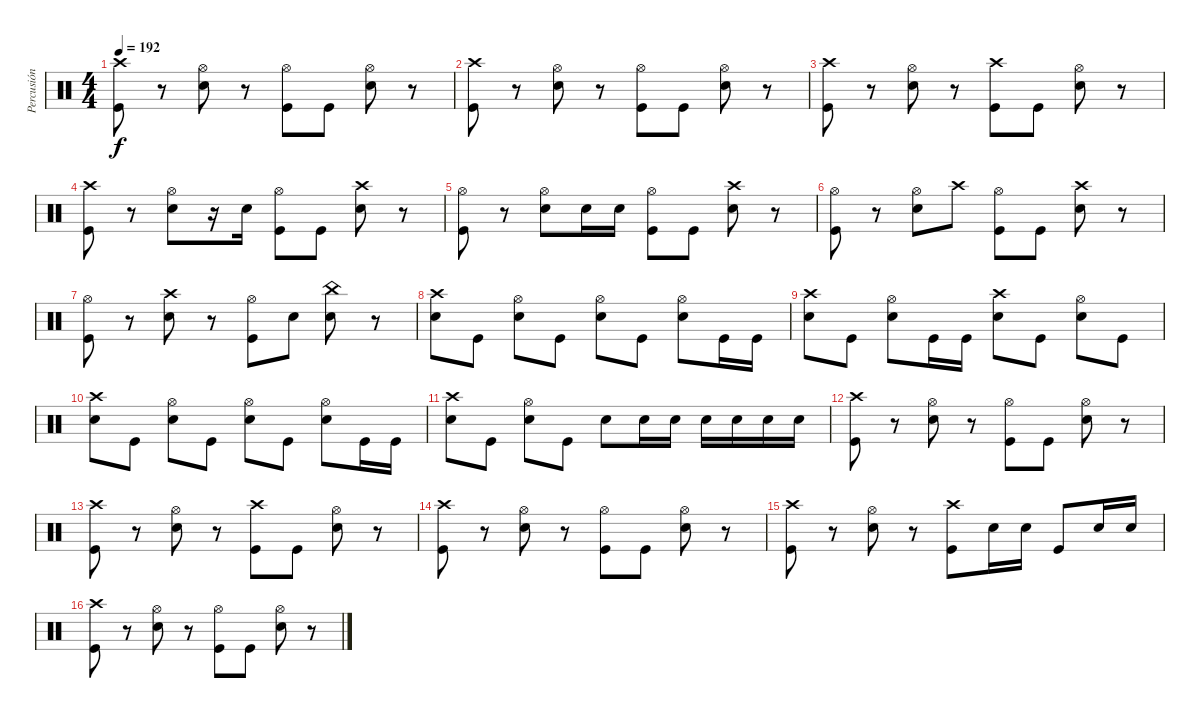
\track ("Percusión" "Percusión") {instrument percussion}
\staff {score}
\articulation defaults
\ts (4 4)
\tempo 192
\clef neutral
\ks c
("Kick (hit)" "Crash high (hit)").8{dy f} r.8 ("Electric Snare (hit)" "Hi-Hat (open)").8 r.8 ("Kick (hit)" "Hi-Hat (open)").8 "Kick (hit)".8 ("Electric Snare (hit)" "Hi-Hat (open)").8 r.8 |
("Kick (hit)" "Crash high (hit)").8 r.8 ("Electric Snare (hit)" "Hi-Hat (open)").8 r.8 ("Kick (hit)" "Hi-Hat (open)").8 "Kick (hit)".8 ("Electric Snare (hit)" "Hi-Hat (open)").8 r.8 |
("Kick (hit)" "Crash high (hit)").8 r.8 ("Electric Snare (hit)" "Hi-Hat (open)").8 r.8 ("Kick (hit)" "Crash high (hit)").8 "Kick (hit)".8 ("Electric Snare (hit)" "Hi-Hat (open)").8 r.8 |
("Kick (hit)" "Crash high (hit)").8 r.8 ("Electric Snare (hit)" "Hi-Hat (open)").8 r.16 "Electric Snare (hit)".16 ("Kick (hit)" "Hi-Hat (open)").8 "Kick (hit)".8 ("Electric Snare (hit)" "Crash high (hit)").8 r.8 |
("Kick (hit)" "Hi-Hat (open)").8 r.8 ("Electric Snare (hit)" "Hi-Hat (open)").8 "Electric Snare (hit)".16 "Electric Snare (hit)".16 ("Kick (hit)" "Hi-Hat (open)").8 "Kick (hit)".8 ("Electric Snare (hit)" "Crash high (hit)").8 r.8 |
("Kick (hit)" "Hi-Hat (open)").8 r.8 ("Electric Snare (hit)" "Hi-Hat (open)").8 "Crash high (hit)".8 ("Kick (hit)" "Hi-Hat (open)").8 "Kick (hit)".8 ("Electric Snare (hit)" "Crash high (hit)").8 r.8 |
("Kick (hit)" "Hi-Hat (open)").8 r.8 ("Electric Snare (hit)" "Crash high (hit)").8 r.8 ("Kick (hit)" "Hi-Hat (open)").8 "Electric Snare (hit)".8 ("Electric Snare (hit)" "China (hit)").8 r.8 |
("Electric Snare (hit)" "Crash high (hit)").8 "Kick (hit)".8 ("Electric Snare (hit)" "Hi-Hat (open)").8 "Kick (hit)".8 ("Electric Snare (hit)" "Hi-Hat (open)").8 "Kick (hit)".8 ("Electric Snare (hit)" "Hi-Hat (open)").8 "Kick (hit)".16 "Kick (hit)".16 |
("Electric Snare (hit)" "Crash high (hit)").8 "Kick (hit)".8 ("Electric Snare (hit)" "Hi-Hat (open)").8 "Kick (hit)".16 "Kick (hit)".16 ("Electric Snare (hit)" "Crash high (hit)").8 "Kick (hit)".8 ("Electric Snare (hit)" "Hi-Hat (open)").8 "Kick (hit)".8 |
("Electric Snare (hit)" "Crash high (hit)").8 "Kick (hit)".8 ("Electric Snare (hit)" "Hi-Hat (open)").8 "Kick (hit)".8 ("Electric Snare (hit)" "Hi-Hat (open)").8 "Kick (hit)".8 ("Electric Snare (hit)" "Hi-Hat (open)").8 "Kick (hit)".16 "Kick (hit)".16 |
("Electric Snare (hit)" "Crash high (hit)").8 "Kick (hit)".8 ("Electric Snare (hit)" "Hi-Hat (open)").8 "Kick (hit)".8 "Electric Snare (hit)".8 "Electric Snare (hit)".16 "Electric Snare (hit)".16 "Electric Snare (hit)".16 "Electric Snare (hit)".16 "Electric Snare (hit)".16 "Electric Snare (hit)".16 |
("Kick (hit)" "Crash high (hit)").8 r.8 ("Electric Snare (hit)" "Hi-Hat (open)").8 r.8 ("Kick (hit)" "Hi-Hat (open)").8 "Kick (hit)".8 ("Electric Snare (hit)" "Hi-Hat (open)").8 r.8 |
("Kick (hit)" "Crash high (hit)").8 r.8 ("Electric Snare (hit)" "Hi-Hat (open)").8 r.8 ("Kick (hit)" "Crash high (hit)").8 "Kick (hit)".8 ("Electric Snare (hit)" "Hi-Hat (open)").8 r.8 |
("Kick (hit)" "Crash high (hit)").8 r.8 ("Electric Snare (hit)" "Hi-Hat (open)").8 r.8 ("Kick (hit)" "Hi-Hat (open)").8 "Kick (hit)".8 ("Electric Snare (hit)" "Hi-Hat (open)").8 r.8 |
("Kick (hit)" "Crash high (hit)").8 r.8 ("Electric Snare (hit)" "Hi-Hat (open)").8 r.8 ("Kick (hit)" "Crash high (hit)").8 "Electric Snare (hit)".16 "Electric Snare (hit)".16 "Kick (hit)".8 "Electric Snare (hit)".16 "Electric Snare (hit)".16 |
("Kick (hit)" "Crash high (hit)").8 r.8 ("Electric Snare (hit)" "Hi-Hat (open)").8 r.8 ("Kick (hit)" "Hi-Hat (open)").8 "Kick (hit)".8 ("Electric Snare (hit)" "Hi-Hat (open)").8 r.8
